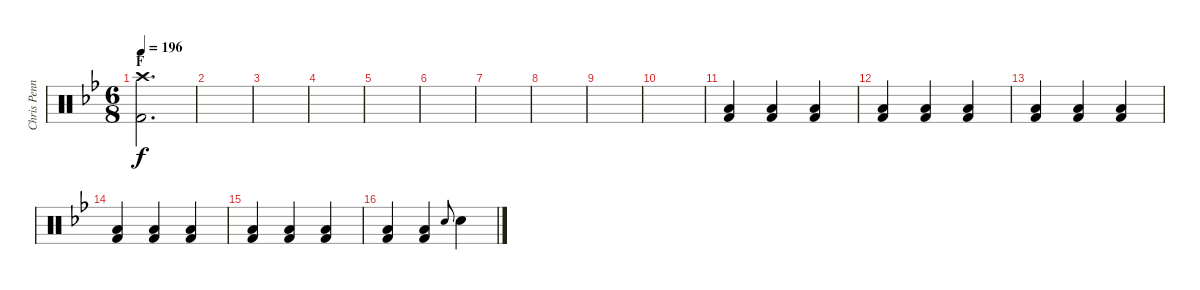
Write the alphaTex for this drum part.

\track ("Chris Pennie/Taylor Hawkins - Drum" "Chris Penn") {instrument percussion}
\staff {score}
\articulation defaults
\ts (6 8)
\section ("" "F")
\tempo 196
\clef neutral
\ks bb
("Crash high (hit)" "Kick (hit) 2").2{d dy f} |
|
|
|
|
|
|
|
|
|
("Low Floor Tom (hit)" "Kick (hit) 2").4{volume 13} ("Low Floor Tom (hit)" "Kick (hit) 2").4 ("Low Floor Tom (hit)" "Kick (hit) 2").4 |
("Low Floor Tom (hit)" "Kick (hit) 2").4 ("Low Floor Tom (hit)" "Kick (hit) 2").4 ("Low Floor Tom (hit)" "Kick (hit) 2").4 |
("Low Floor Tom (hit)" "Kick (hit) 2").4 ("Low Floor Tom (hit)" "Kick (hit) 2").4 ("Low Floor Tom (hit)" "Kick (hit) 2").4 |
("Low Floor Tom (hit)" "Kick (hit) 2").4 ("Low Floor Tom (hit)" "Kick (hit) 2").4 ("Low Floor Tom (hit)" "Kick (hit) 2").4 |
("Low Floor Tom (hit)" "Kick (hit) 2").4 ("Low Floor Tom (hit)" "Kick (hit) 2").4 ("Low Floor Tom (hit)" "Kick (hit) 2").4 |
("Low Floor Tom (hit)" "Kick (hit) 2").4 ("Low Floor Tom (hit)" "Kick (hit) 2").4 "Electric Snare (hit)".8{gr onbeat} "Electric Snare (hit)".4
